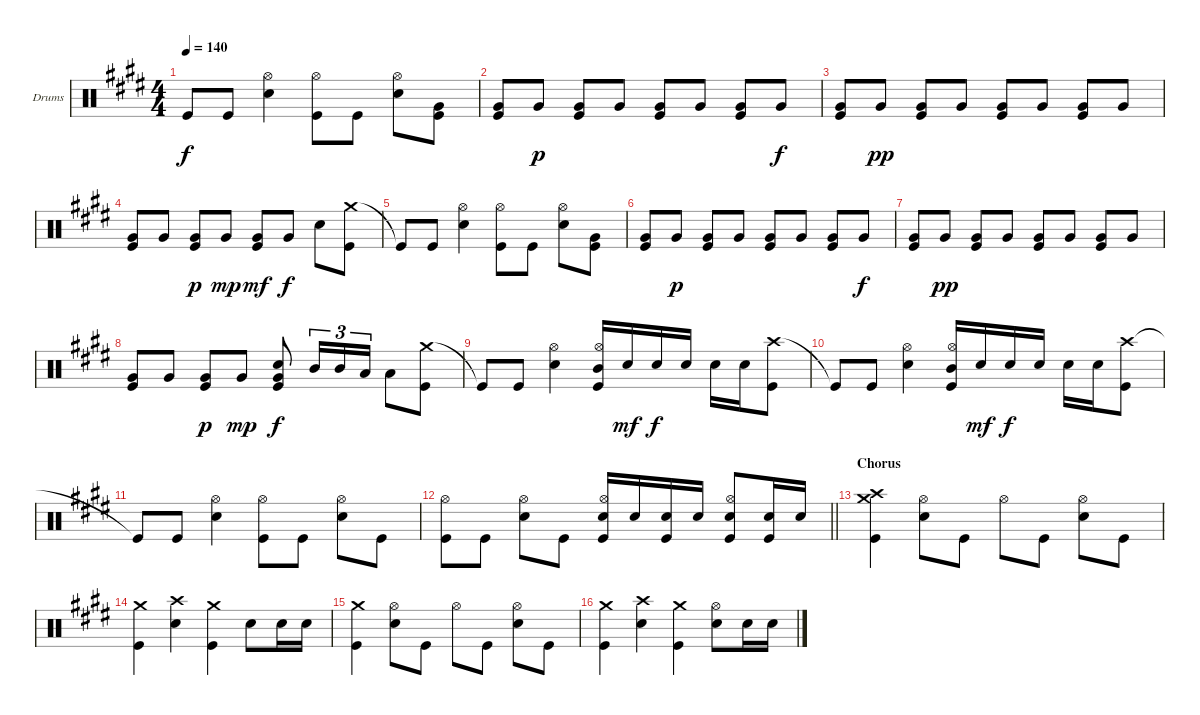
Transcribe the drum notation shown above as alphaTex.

\bracketExtendMode groupsimilarinstruments
\firstSystemTrackNameOrientation horizontal
\otherSystemsTrackNameOrientation horizontal
\track ("Drumkit" "Drums") {instrument percussion}
\staff {score}
\articulation defaults
\ts (4 4)
\tempo 140
\clef neutral
\ks e "Kick (hit)"{t}.8{dy f} "Kick (hit)".8
("Hi-Hat (open)" "Snare (hit) 2").4 ("Hi-Hat (open)" "Kick (hit)").8 "Kick (hit)".8 ("Hi-Hat (open)" "Snare (hit) 2").8 ("Very Low Tom (hit)" "Kick (hit)").8 |
("Very Low Tom (hit)" "Kick (hit)").8 "Very Low Tom (hit)".8{dy p} ("Very Low Tom (hit)" "Kick (hit)").8 "Very Low Tom (hit)".8 ("Very Low Tom (hit)" "Kick (hit)").8 "Very Low Tom (hit)".8 ("Very Low Tom (hit)" "Kick (hit)").8 "Very Low Tom (hit)".8{dy f} |
("Very Low Tom (hit)" "Kick (hit)").8 "Very Low Tom (hit)".8{dy pp} ("Very Low Tom (hit)" "Kick (hit)").8 "Very Low Tom (hit)".8 ("Very Low Tom (hit)" "Kick (hit)").8 "Very Low Tom (hit)".8 ("Very Low Tom (hit)" "Kick (hit)").8 "Very Low Tom (hit)".8 |
("Very Low Tom (hit)" "Kick (hit)").8 "Very Low Tom (hit)".8 ("Very Low Tom (hit)" "Kick (hit)").8{dy p} "Very Low Tom (hit)".8{dy mp} ("Very Low Tom (hit)" "Kick (hit)").8{dy mf} "Very Low Tom (hit)".8{dy f} "Snare (hit) 2".8 ("Crash medium (hit)" "Kick (hit)").8 |
"Kick (hit)"{t}.8 "Kick (hit)".8 ("Hi-Hat (open)" "Snare (hit) 2").4 ("Hi-Hat (open)" "Kick (hit)").8 "Kick (hit)".8 ("Hi-Hat (open)" "Snare (hit) 2").8 ("Very Low Tom (hit)" "Kick (hit)").8 |
("Very Low Tom (hit)" "Kick (hit)").8 "Very Low Tom (hit)".8{dy p} ("Very Low Tom (hit)" "Kick (hit)").8 "Very Low Tom (hit)".8 ("Very Low Tom (hit)" "Kick (hit)").8 "Very Low Tom (hit)".8 ("Very Low Tom (hit)" "Kick (hit)").8 "Very Low Tom (hit)".8{dy f} |
("Very Low Tom (hit)" "Kick (hit)").8 "Very Low Tom (hit)".8{dy pp} ("Very Low Tom (hit)" "Kick (hit)").8 "Very Low Tom (hit)".8 ("Very Low Tom (hit)" "Kick (hit)").8 "Very Low Tom (hit)".8 ("Very Low Tom (hit)" "Kick (hit)").8 "Very Low Tom (hit)".8 |
("Very Low Tom (hit)" "Kick (hit)").8 "Very Low Tom (hit)".8 ("Very Low Tom (hit)" "Kick (hit)").8{dy p} "Very Low Tom (hit)".8{dy mp} ("Snare (hit) 2" "Very Low Tom (hit)" "Kick (hit)").8{dy f} "Mid Tom (hit)".16{tu (3 2)} "Mid Tom (hit)".16{tu (3 2)} "Low Tom (hit)".16{tu (3 2)} "Low Tom (hit)".8 ("Crash medium (hit)" "Kick (hit)").8 |
"Kick (hit)"{t}.8 "Kick (hit)".8 ("Hi-Hat (open)" "Snare (hit) 2").4 ("Hi-Hat (open)" "Mid Tom (hit)" "Kick (hit)").16 "Snare (hit) 2".16{dy mf} "Snare (hit) 2".16{dy f} "Snare (hit) 2".16 "Snare (hit) 2".16 "Snare (hit) 2".16 ("Crash high (hit)" "Kick (hit)").8 |
"Kick (hit)"{t}.8 "Kick (hit)".8 ("Hi-Hat (open)" "Snare (hit) 2").4 ("Hi-Hat (open)" "Mid Tom (hit)" "Kick (hit)").16 "Snare (hit) 2".16{dy mf} "Snare (hit) 2".16{dy f} "Snare (hit) 2".16 "Snare (hit) 2".16 "Snare (hit) 2".16 ("Crash high (hit)" "Kick (hit)").8 |
"Kick (hit)"{t}.8 "Kick (hit)".8 ("Hi-Hat (open)" "Snare (hit) 2").4 ("Hi-Hat (open)" "Kick (hit)").8 "Kick (hit)".8 ("Hi-Hat (open)" "Snare (hit) 2").8 "Kick (hit)".8 |
\barLineRight lightlight
("Hi-Hat (open)" "Kick (hit)").8 "Kick (hit)".8 ("Hi-Hat (open)" "Snare (hit) 2").8 "Kick (hit)".8 ("Hi-Hat (open)" "Snare (hit) 2" "Kick (hit)").16 "Snare (hit) 2".16 ("Snare (hit) 2" "Kick (hit)").16 "Snare (hit) 2".16 ("Hi-Hat (open)" "Snare (hit) 2" "Kick (hit)").8 ("Snare (hit) 2" "Kick (hit)").16 "Snare (hit) 2".16 |
\section ("" "Chorus")
("Crash high (hit)" "Crash medium (hit)" "Kick (hit)").4 ("Hi-Hat (open)" "Snare (hit) 2").8 "Kick (hit)".8 "Hi-Hat (open)".8 "Kick (hit)".8 ("Hi-Hat (open)" "Snare (hit) 2").8 "Kick (hit)".8 |
("Crash medium (hit)" "Kick (hit)").4 ("Crash high (hit)" "Snare (hit) 2").4 ("Crash medium (hit)" "Kick (hit)").4 "Snare (hit) 2".8 "Snare (hit) 2".16 "Snare (hit) 2".16 |
("Crash medium (hit)" "Kick (hit)").4 ("Hi-Hat (open)" "Snare (hit) 2").8 "Kick (hit)".8 "Hi-Hat (open)".8 "Kick (hit)".8 ("Hi-Hat (open)" "Snare (hit) 2").8 "Kick (hit)".8 |
("Crash medium (hit)" "Kick (hit)").4 ("Crash high (hit)" "Snare (hit) 2").4 ("Crash medium (hit)" "Kick (hit)").4 ("Hi-Hat (open)" "Snare (hit) 2").8 "Snare (hit) 2".16 "Snare (hit) 2".16
